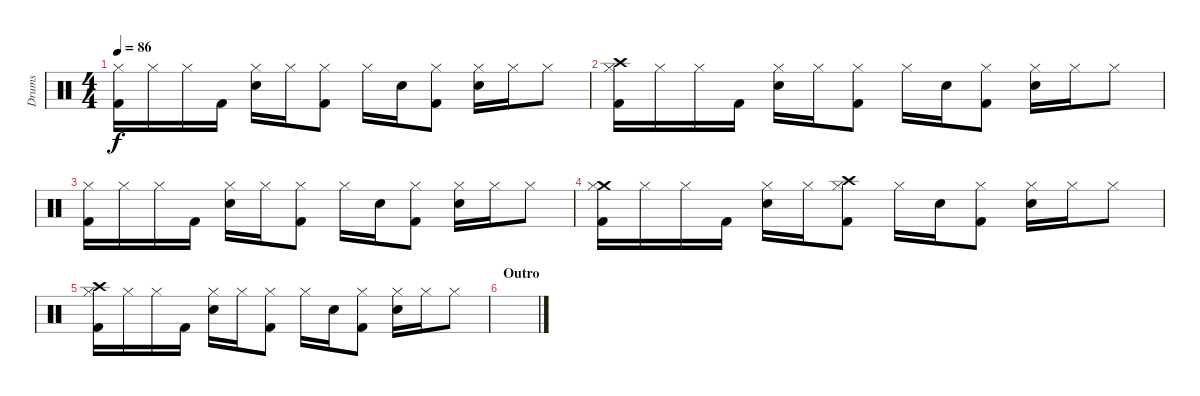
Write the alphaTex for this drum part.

\track ("Drums" "Drums") {instrument percussion}
\staff {score}
\articulation defaults
\ts (4 4)
\tempo 86
\clef neutral
\ks c
("Hi-Hat (closed)" "Kick (hit) 2").16{dy f} "Hi-Hat (closed)".16 "Hi-Hat (closed)".16 "Kick (hit) 2".16 ("Hi-Hat (closed)" "Electric Snare (hit)").16 "Hi-Hat (closed)".16 ("Hi-Hat (closed)" "Kick (hit) 2").8 "Hi-Hat (closed)".16 "Electric Snare (hit)".16 ("Hi-Hat (closed)" "Kick (hit) 2").8 ("Hi-Hat (closed)" "Electric Snare (hit)").16 "Hi-Hat (closed)".16 "Hi-Hat (closed)".8 |
("Crash high (hit)" "Hi-Hat (closed)" "Kick (hit) 2").16 "Hi-Hat (closed)".16 "Hi-Hat (closed)".16 "Kick (hit) 2".16 ("Hi-Hat (closed)" "Electric Snare (hit)").16 "Hi-Hat (closed)".16 ("Hi-Hat (closed)" "Kick (hit) 2").8 "Hi-Hat (closed)".16 "Electric Snare (hit)".16 ("Hi-Hat (closed)" "Kick (hit) 2").8 ("Hi-Hat (closed)" "Electric Snare (hit)").16 "Hi-Hat (closed)".16 "Hi-Hat (closed)".8 |
("Hi-Hat (closed)" "Kick (hit) 2").16 "Hi-Hat (closed)".16 "Hi-Hat (closed)".16 "Kick (hit) 2".16 ("Hi-Hat (closed)" "Electric Snare (hit)").16 "Hi-Hat (closed)".16 ("Hi-Hat (closed)" "Kick (hit) 2").8 "Hi-Hat (closed)".16 "Electric Snare (hit)".16 ("Hi-Hat (closed)" "Kick (hit) 2").8 ("Hi-Hat (closed)" "Electric Snare (hit)").16 "Hi-Hat (closed)".16 "Hi-Hat (closed)".8 |
("Crash medium (hit)" "Hi-Hat (closed)" "Kick (hit) 2").16 "Hi-Hat (closed)".16 "Hi-Hat (closed)".16 "Kick (hit) 2".16 ("Hi-Hat (closed)" "Electric Snare (hit)").16 "Hi-Hat (closed)".16 ("Crash high (hit)" "Hi-Hat (closed)" "Kick (hit) 2").8 "Hi-Hat (closed)".16 "Electric Snare (hit)".16 ("Hi-Hat (closed)" "Kick (hit) 2").8 ("Hi-Hat (closed)" "Electric Snare (hit)").16 "Hi-Hat (closed)".16 "Hi-Hat (closed)".8 |
("Crash high (hit)" "Hi-Hat (closed)" "Kick (hit) 2").16 "Hi-Hat (closed)".16 "Hi-Hat (closed)".16 "Kick (hit) 2".16 ("Hi-Hat (closed)" "Electric Snare (hit)").16 "Hi-Hat (closed)".16 ("Hi-Hat (closed)" "Kick (hit) 2").8 "Hi-Hat (closed)".16 "Electric Snare (hit)".16 ("Hi-Hat (closed)" "Kick (hit) 2").8 ("Hi-Hat (closed)" "Electric Snare (hit)").16 "Hi-Hat (closed)".16 "Hi-Hat (closed)".8 |
\section ("" "Outro")
